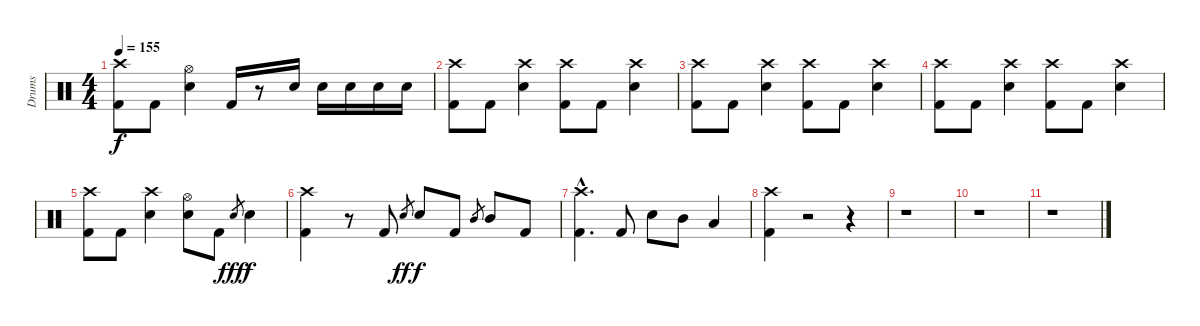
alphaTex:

\track ("Drums" "Drums") {instrument percussion}
\staff {score}
\articulation defaults
\ts (4 4)
\tempo 155
\clef neutral
\ks c
("Crash high (hit)" "Kick (hit) 2").8{dy f} "Kick (hit) 2".8 ("Hi-Hat (open)" "Electric Snare (hit)").4 "Kick (hit) 2".16 r.8 "Electric Snare (hit)".16 "Electric Snare (hit)".16 "Electric Snare (hit)".16 "Electric Snare (hit)".16 "Electric Snare (hit)".16 |
("Crash high (hit)" "Kick (hit) 2").8 "Kick (hit) 2".8 ("Crash high (hit)" "Electric Snare (hit)").4 ("Crash high (hit)" "Kick (hit) 2").8 "Kick (hit) 2".8 ("Crash high (hit)" "Electric Snare (hit)").4 |
("Crash high (hit)" "Kick (hit) 2").8 "Kick (hit) 2".8 ("Crash high (hit)" "Electric Snare (hit)").4 ("Crash high (hit)" "Kick (hit) 2").8 "Kick (hit) 2".8 ("Crash high (hit)" "Electric Snare (hit)").4 |
("Crash high (hit)" "Kick (hit) 2").8 "Kick (hit) 2".8 ("Crash high (hit)" "Electric Snare (hit)").4 ("Crash high (hit)" "Kick (hit) 2").8 "Kick (hit) 2".8 ("Crash high (hit)" "Electric Snare (hit)").4 |
("Crash high (hit)" "Kick (hit) 2").8 "Kick (hit) 2".8 ("Crash high (hit)" "Electric Snare (hit)").4 ("Hi-Hat (open)" "Electric Snare (hit)").8 "Kick (hit) 2".8 "Electric Snare (hit)".8{gr dy fff} "Electric Snare (hit)".4{dy f} |
("Crash high (hit)" "Kick (hit) 2").4 r.8 "Kick (hit) 2".8 "Electric Snare (hit)".8{gr dy ff} "Electric Snare (hit)".8{dy f} "Kick (hit) 2".8 "Mid Tom (hit)".8{gr} "Mid Tom (hit)".8 "Kick (hit) 2".8 |
("Crash high (hit)"{hac} "Kick (hit) 2"{hac}).4{d} "Kick (hit) 2".8 "Electric Snare (hit)".8 "Mid Tom (hit)".8 "Low Tom (hit)".4 |
("Crash high (hit)" "Kick (hit) 2").4 r.2 r.4 |
r.1 |
r.1 |
r.1
